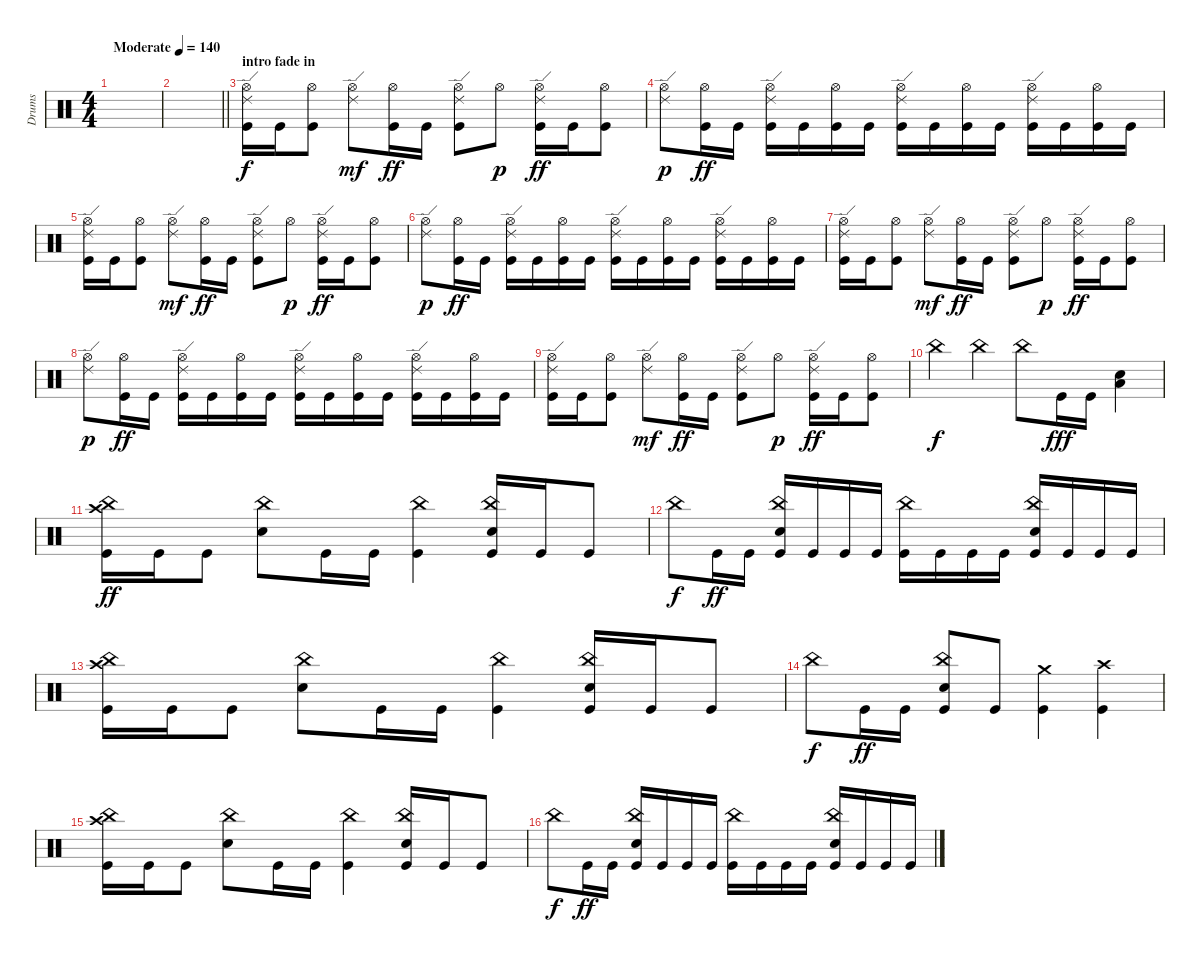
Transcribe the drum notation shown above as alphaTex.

\track ("Drums" "Drums") {instrument percussion}
\staff {score}
\articulation defaults
\ts (4 4)
\tempo (140 "Moderate")
\clef neutral
\ks c
|
\barLineRight lightlight
|
\section ("" "intro fade in")
("Hi-Hat (open)" "Ride (edge) 2" "Kick (hit)").16 "Kick (hit)".16 ("Hi-Hat (open)" "Kick (hit)").8 ("Hi-Hat (open)" "Ride (edge) 2").8{dy mf} ("Hi-Hat (open)" "Kick (hit)").16{dy ff} "Kick (hit)".16 ("Hi-Hat (open)" "Ride (edge) 2" "Kick (hit)").8 "Hi-Hat (open)".8{dy p} ("Hi-Hat (open)" "Ride (edge) 2" "Kick (hit)").16{dy ff} "Kick (hit)".16 ("Hi-Hat (open)" "Kick (hit)").8 |
("Hi-Hat (open)" "Ride (edge) 2").8{dy p volume 16} ("Hi-Hat (open)" "Kick (hit)").16{dy ff} "Kick (hit)".16 ("Hi-Hat (open)" "Ride (edge) 2" "Kick (hit)").16 "Kick (hit)".16 ("Hi-Hat (open)" "Kick (hit)").16 "Kick (hit)".16 ("Hi-Hat (open)" "Ride (edge) 2" "Kick (hit)").16 "Kick (hit)".16 ("Hi-Hat (open)" "Kick (hit)").16 "Kick (hit)".16 ("Hi-Hat (open)" "Ride (edge) 2" "Kick (hit)").16 "Kick (hit)".16 ("Hi-Hat (open)" "Kick (hit)").16 "Kick (hit)".16 |
("Hi-Hat (open)" "Ride (edge) 2" "Kick (hit)").16 "Kick (hit)".16 ("Hi-Hat (open)" "Kick (hit)").8 ("Hi-Hat (open)" "Ride (edge) 2").8{dy mf} ("Hi-Hat (open)" "Kick (hit)").16{dy ff} "Kick (hit)".16 ("Hi-Hat (open)" "Ride (edge) 2" "Kick (hit)").8 "Hi-Hat (open)".8{dy p} ("Hi-Hat (open)" "Ride (edge) 2" "Kick (hit)").16{dy ff} "Kick (hit)".16 ("Hi-Hat (open)" "Kick (hit)").8 |
("Hi-Hat (open)" "Ride (edge) 2").8{dy p} ("Hi-Hat (open)" "Kick (hit)").16{dy ff} "Kick (hit)".16 ("Hi-Hat (open)" "Ride (edge) 2" "Kick (hit)").16 "Kick (hit)".16 ("Hi-Hat (open)" "Kick (hit)").16 "Kick (hit)".16 ("Hi-Hat (open)" "Ride (edge) 2" "Kick (hit)").16 "Kick (hit)".16 ("Hi-Hat (open)" "Kick (hit)").16 "Kick (hit)".16 ("Hi-Hat (open)" "Ride (edge) 2" "Kick (hit)").16 "Kick (hit)".16 ("Hi-Hat (open)" "Kick (hit)").16 "Kick (hit)".16 |
("Hi-Hat (open)" "Ride (edge) 2" "Kick (hit)").16 "Kick (hit)".16 ("Hi-Hat (open)" "Kick (hit)").8 ("Hi-Hat (open)" "Ride (edge) 2").8{dy mf} ("Hi-Hat (open)" "Kick (hit)").16{dy ff} "Kick (hit)".16 ("Hi-Hat (open)" "Ride (edge) 2" "Kick (hit)").8 "Hi-Hat (open)".8{dy p} ("Hi-Hat (open)" "Ride (edge) 2" "Kick (hit)").16{dy ff} "Kick (hit)".16 ("Hi-Hat (open)" "Kick (hit)").8 |
("Hi-Hat (open)" "Ride (edge) 2").8{dy p} ("Hi-Hat (open)" "Kick (hit)").16{dy ff} "Kick (hit)".16 ("Hi-Hat (open)" "Ride (edge) 2" "Kick (hit)").16 "Kick (hit)".16 ("Hi-Hat (open)" "Kick (hit)").16 "Kick (hit)".16 ("Hi-Hat (open)" "Ride (edge) 2" "Kick (hit)").16 "Kick (hit)".16 ("Hi-Hat (open)" "Kick (hit)").16 "Kick (hit)".16 ("Hi-Hat (open)" "Ride (edge) 2" "Kick (hit)").16 "Kick (hit)".16 ("Hi-Hat (open)" "Kick (hit)").16 "Kick (hit)".16 |
("Hi-Hat (open)" "Ride (edge) 2" "Kick (hit)").16 "Kick (hit)".16 ("Hi-Hat (open)" "Kick (hit)").8 ("Hi-Hat (open)" "Ride (edge) 2").8{dy mf} ("Hi-Hat (open)" "Kick (hit)").16{dy ff} "Kick (hit)".16 ("Hi-Hat (open)" "Ride (edge) 2" "Kick (hit)").8 "Hi-Hat (open)".8{dy p} ("Hi-Hat (open)" "Ride (edge) 2" "Kick (hit)").16{dy ff} "Kick (hit)".16 ("Hi-Hat (open)" "Kick (hit)").8 |
"China (hit)".4{dy f} "China (hit)".4 "China (hit)".8 "Kick (hit)".16{dy fff} "Kick (hit)".16 ("Electric Snare (hit)" "Low Floor Tom (hit)").4 |
("Crash high (hit)" "China (hit)" "Kick (hit)").16{dy ff} "Kick (hit)".16 "Kick (hit)".8 ("China (hit)" "Electric Snare (hit)").8 "Kick (hit)".16 "Kick (hit)".16 ("China (hit)" "Kick (hit)").4 ("China (hit)" "Electric Snare (hit)" "Kick (hit)").16 "Kick (hit)".16 "Kick (hit)".8 |
"China (hit)".8{dy f} "Kick (hit)".16{dy ff} "Kick (hit)".16 ("China (hit)" "Electric Snare (hit)" "Kick (hit)").16 "Kick (hit)".16 "Kick (hit)".16 "Kick (hit)".16 ("China (hit)" "Kick (hit)").16 "Kick (hit)".16 "Kick (hit)".16 "Kick (hit)".16 ("China (hit)" "Electric Snare (hit)" "Kick (hit)").16 "Kick (hit)".16 "Kick (hit)".16 "Kick (hit)".16 |
("Crash high (hit)" "China (hit)" "Kick (hit)").16 "Kick (hit)".16 "Kick (hit)".8 ("China (hit)" "Electric Snare (hit)").8 "Kick (hit)".16 "Kick (hit)".16 ("China (hit)" "Kick (hit)").4 ("China (hit)" "Electric Snare (hit)" "Kick (hit)").16 "Kick (hit)".16 "Kick (hit)".8 |
"China (hit)".8{dy f} "Kick (hit)".16{dy ff} "Kick (hit)".16 ("China (hit)" "Electric Snare (hit)" "Kick (hit)").8 "Kick (hit)".8 ("Crash medium (hit)" "Kick (hit)").4 ("Crash high (hit)" "Kick (hit)").4 |
("Crash high (hit)" "China (hit)" "Kick (hit)").16 "Kick (hit)".16 "Kick (hit)".8 ("China (hit)" "Electric Snare (hit)").8 "Kick (hit)".16 "Kick (hit)".16 ("China (hit)" "Kick (hit)").4 ("China (hit)" "Electric Snare (hit)" "Kick (hit)").16 "Kick (hit)".16 "Kick (hit)".8 |
"China (hit)".8{dy f} "Kick (hit)".16{dy ff} "Kick (hit)".16 ("China (hit)" "Electric Snare (hit)" "Kick (hit)").16 "Kick (hit)".16 "Kick (hit)".16 "Kick (hit)".16 ("China (hit)" "Kick (hit)").16 "Kick (hit)".16 "Kick (hit)".16 "Kick (hit)".16 ("China (hit)" "Electric Snare (hit)" "Kick (hit)").16 "Kick (hit)".16 "Kick (hit)".16 "Kick (hit)".16
